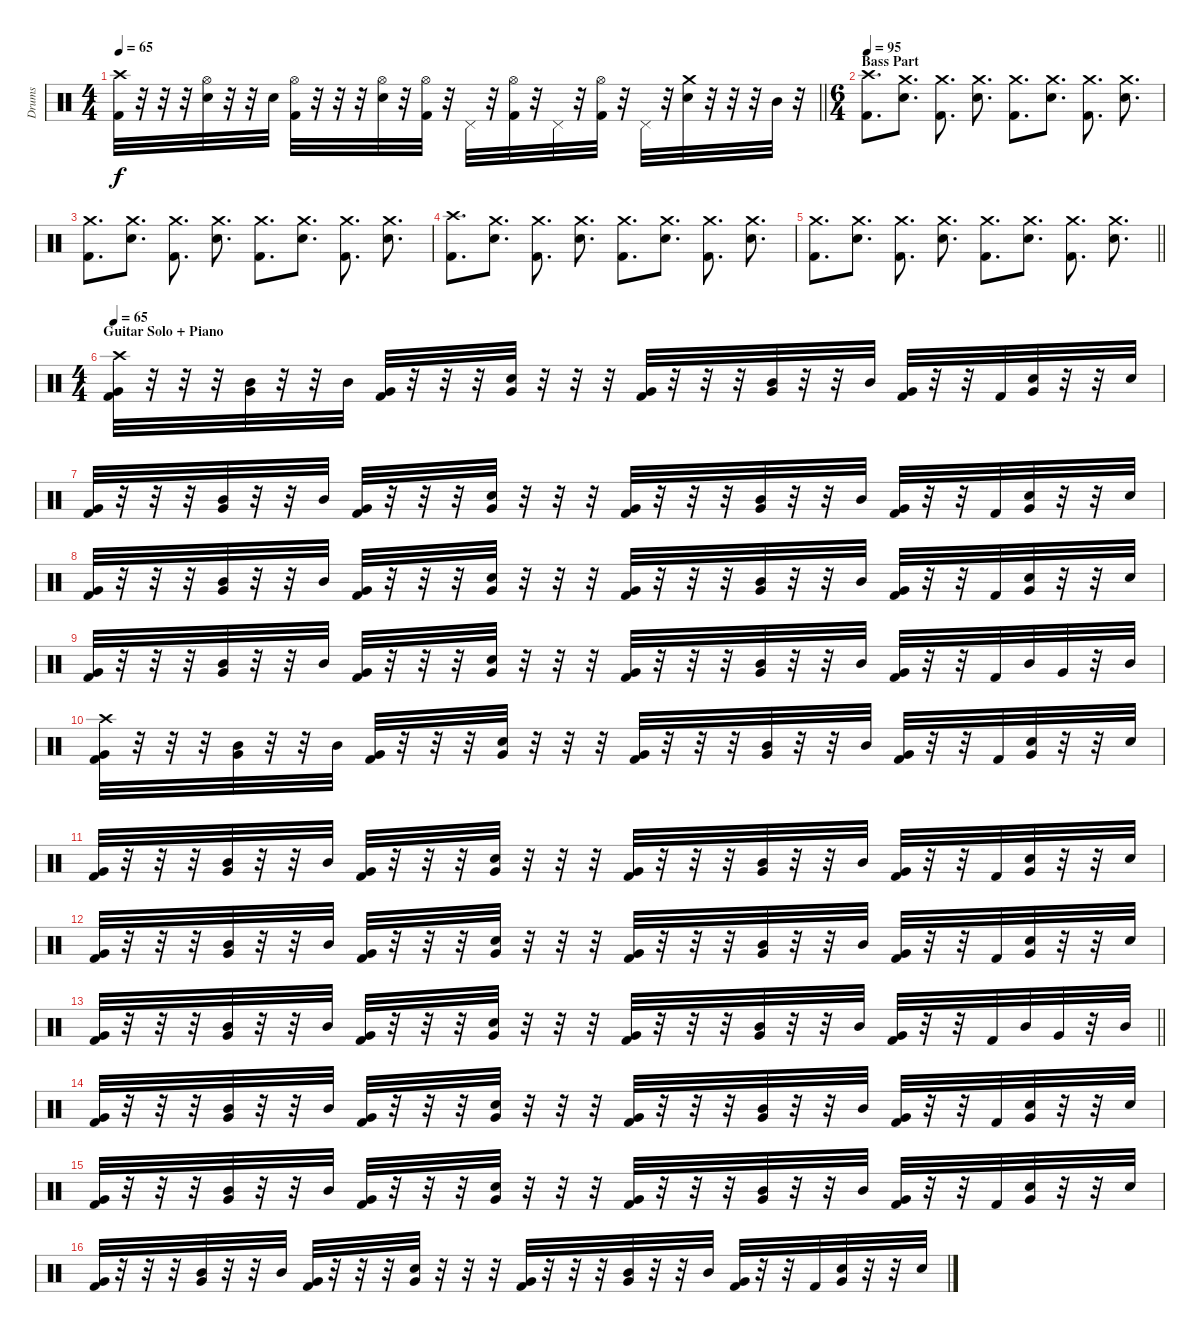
\track ("Drums" "Drums") {instrument percussion}
\staff {score}
\articulation defaults
\ts (4 4)
\tempo 65
\clef neutral
\barLineRight lightlight
\ks c
("Crash high (hit)" "Kick (hit) 2").32{dy f} r.32 r.32 r.32 ("Hi-Hat (open)" "Snare (hit) 2").32 r.32 r.32 "Snare (hit) 2".32 ("Hi-Hat (open)" "Kick (hit) 2").32 r.32 r.32 r.32 ("Hi-Hat (open)" "Snare (hit) 2").32 r.32 ("Hi-Hat (open)" "Kick (hit) 2").32 r.32 "Pedal Hi-Hat (hit)".32 r.32 ("Hi-Hat (open)" "Kick (hit) 2").32 r.32 "Pedal Hi-Hat (hit)".32 r.32 ("Hi-Hat (open)" "Kick (hit) 2").32 r.32 "Pedal Hi-Hat (hit)".32 r.32 ("Crash medium (hit)" "Snare (hit) 2").32 r.32 r.32 r.32 "Mid Tom (hit)".32 r.32 |
\ts (6 4)
\section ("" "Bass Part")
\tempo 95
("Crash high (hit)" "Kick (hit) 2").8{d} ("Crash medium (hit)" "Snare (hit) 2").8{d} ("Crash medium (hit)" "Kick (hit) 2").8{d} ("Crash medium (hit)" "Snare (hit) 2").8{d} ("Crash medium (hit)" "Kick (hit) 2").8{d} ("Crash medium (hit)" "Snare (hit) 2").8{d} ("Crash medium (hit)" "Kick (hit) 2").8{d} ("Crash medium (hit)" "Snare (hit) 2").8{d} |
("Crash medium (hit)" "Kick (hit) 2").8{d} ("Crash medium (hit)" "Snare (hit) 2").8{d} ("Crash medium (hit)" "Kick (hit) 2").8{d} ("Crash medium (hit)" "Snare (hit) 2").8{d} ("Crash medium (hit)" "Kick (hit) 2").8{d} ("Crash medium (hit)" "Snare (hit) 2").8{d} ("Crash medium (hit)" "Kick (hit) 2").8{d} ("Crash medium (hit)" "Snare (hit) 2").8{d} |
("Crash high (hit)" "Kick (hit) 2").8{d} ("Crash medium (hit)" "Snare (hit) 2").8{d} ("Crash medium (hit)" "Kick (hit) 2").8{d} ("Crash medium (hit)" "Snare (hit) 2").8{d} ("Crash medium (hit)" "Kick (hit) 2").8{d} ("Crash medium (hit)" "Snare (hit) 2").8{d} ("Crash medium (hit)" "Kick (hit) 2").8{d} ("Crash medium (hit)" "Snare (hit) 2").8{d} |
\barLineRight lightlight
("Crash medium (hit)" "Kick (hit) 2").8{d} ("Crash medium (hit)" "Snare (hit) 2").8{d} ("Crash medium (hit)" "Kick (hit) 2").8{d} ("Crash medium (hit)" "Snare (hit) 2").8{d} ("Crash medium (hit)" "Kick (hit) 2").8{d} ("Crash medium (hit)" "Snare (hit) 2").8{d} ("Crash medium (hit)" "Kick (hit) 2").8{d} ("Crash medium (hit)" "Snare (hit) 2").8{d} |
\ts (4 4)
\section ("" "Guitar Solo + Piano")
\tempo 65
("Crash high (hit)" "Very Low Tom (hit)" "Kick (hit) 2").32 r.32 r.32 r.32 ("Mid Tom (hit)" "Very Low Tom (hit)").32 r.32 r.32 "Mid Tom (hit)".32 ("Very Low Tom (hit)" "Kick (hit) 2").32 r.32 r.32 r.32 ("Snare (hit) 2" "Very Low Tom (hit)").32 r.32 r.32 r.32 ("Very Low Tom (hit)" "Kick (hit) 2").32 r.32 r.32 r.32 ("Mid Tom (hit)" "Very Low Tom (hit)").32 r.32 r.32 "Mid Tom (hit)".32 ("Very Low Tom (hit)" "Kick (hit) 2").32 r.32 r.32 "Kick (hit) 2".32 ("Snare (hit) 2" "Very Low Tom (hit)").32 r.32 r.32 "Snare (hit) 2".32 |
("Very Low Tom (hit)" "Kick (hit) 2").32 r.32 r.32 r.32 ("Mid Tom (hit)" "Very Low Tom (hit)").32 r.32 r.32 "Mid Tom (hit)".32 ("Very Low Tom (hit)" "Kick (hit) 2").32 r.32 r.32 r.32 ("Snare (hit) 2" "Very Low Tom (hit)").32 r.32 r.32 r.32 ("Very Low Tom (hit)" "Kick (hit) 2").32 r.32 r.32 r.32 ("Mid Tom (hit)" "Very Low Tom (hit)").32 r.32 r.32 "Mid Tom (hit)".32 ("Very Low Tom (hit)" "Kick (hit) 2").32 r.32 r.32 "Kick (hit) 2".32 ("Snare (hit) 2" "Very Low Tom (hit)").32 r.32 r.32 "Snare (hit) 2".32 |
("Very Low Tom (hit)" "Kick (hit) 2").32 r.32 r.32 r.32 ("Mid Tom (hit)" "Very Low Tom (hit)").32 r.32 r.32 "Mid Tom (hit)".32 ("Very Low Tom (hit)" "Kick (hit) 2").32 r.32 r.32 r.32 ("Snare (hit) 2" "Very Low Tom (hit)").32 r.32 r.32 r.32 ("Very Low Tom (hit)" "Kick (hit) 2").32 r.32 r.32 r.32 ("Mid Tom (hit)" "Very Low Tom (hit)").32 r.32 r.32 "Mid Tom (hit)".32 ("Very Low Tom (hit)" "Kick (hit) 2").32 r.32 r.32 "Kick (hit) 2".32 ("Snare (hit) 2" "Very Low Tom (hit)").32 r.32 r.32 "Snare (hit) 2".32 |
("Very Low Tom (hit)" "Kick (hit) 2").32 r.32 r.32 r.32 ("Mid Tom (hit)" "Very Low Tom (hit)").32 r.32 r.32 "Mid Tom (hit)".32 ("Very Low Tom (hit)" "Kick (hit) 2").32 r.32 r.32 r.32 ("Snare (hit) 2" "Very Low Tom (hit)").32 r.32 r.32 r.32 ("Very Low Tom (hit)" "Kick (hit) 2").32 r.32 r.32 r.32 ("Mid Tom (hit)" "Very Low Tom (hit)").32 r.32 r.32 "Mid Tom (hit)".32 ("Very Low Tom (hit)" "Kick (hit) 2").32 r.32 r.32 "Kick (hit) 2".32 "Mid Tom (hit)".32 "Very Low Tom (hit)".32 r.32 "Mid Tom (hit)".32 |
("Crash high (hit)" "Very Low Tom (hit)" "Kick (hit) 2").32 r.32 r.32 r.32 ("Mid Tom (hit)" "Very Low Tom (hit)").32 r.32 r.32 "Mid Tom (hit)".32 ("Very Low Tom (hit)" "Kick (hit) 2").32 r.32 r.32 r.32 ("Snare (hit) 2" "Very Low Tom (hit)").32 r.32 r.32 r.32 ("Very Low Tom (hit)" "Kick (hit) 2").32 r.32 r.32 r.32 ("Mid Tom (hit)" "Very Low Tom (hit)").32 r.32 r.32 "Mid Tom (hit)".32 ("Very Low Tom (hit)" "Kick (hit) 2").32 r.32 r.32 "Kick (hit) 2".32 ("Snare (hit) 2" "Very Low Tom (hit)").32 r.32 r.32 "Snare (hit) 2".32 |
("Very Low Tom (hit)" "Kick (hit) 2").32 r.32 r.32 r.32 ("Mid Tom (hit)" "Very Low Tom (hit)").32 r.32 r.32 "Mid Tom (hit)".32 ("Very Low Tom (hit)" "Kick (hit) 2").32 r.32 r.32 r.32 ("Snare (hit) 2" "Very Low Tom (hit)").32 r.32 r.32 r.32 ("Very Low Tom (hit)" "Kick (hit) 2").32 r.32 r.32 r.32 ("Mid Tom (hit)" "Very Low Tom (hit)").32 r.32 r.32 "Mid Tom (hit)".32 ("Very Low Tom (hit)" "Kick (hit) 2").32 r.32 r.32 "Kick (hit) 2".32 ("Snare (hit) 2" "Very Low Tom (hit)").32 r.32 r.32 "Snare (hit) 2".32 |
("Very Low Tom (hit)" "Kick (hit) 2").32 r.32 r.32 r.32 ("Mid Tom (hit)" "Very Low Tom (hit)").32 r.32 r.32 "Mid Tom (hit)".32 ("Very Low Tom (hit)" "Kick (hit) 2").32 r.32 r.32 r.32 ("Snare (hit) 2" "Very Low Tom (hit)").32 r.32 r.32 r.32 ("Very Low Tom (hit)" "Kick (hit) 2").32 r.32 r.32 r.32 ("Mid Tom (hit)" "Very Low Tom (hit)").32 r.32 r.32 "Mid Tom (hit)".32 ("Very Low Tom (hit)" "Kick (hit) 2").32 r.32 r.32 "Kick (hit) 2".32 ("Snare (hit) 2" "Very Low Tom (hit)").32 r.32 r.32 "Snare (hit) 2".32 |
\barLineRight lightlight
("Very Low Tom (hit)" "Kick (hit) 2").32 r.32 r.32 r.32 ("Mid Tom (hit)" "Very Low Tom (hit)").32 r.32 r.32 "Mid Tom (hit)".32 ("Very Low Tom (hit)" "Kick (hit) 2").32 r.32 r.32 r.32 ("Snare (hit) 2" "Very Low Tom (hit)").32 r.32 r.32 r.32 ("Very Low Tom (hit)" "Kick (hit) 2").32 r.32 r.32 r.32 ("Mid Tom (hit)" "Very Low Tom (hit)").32 r.32 r.32 "Mid Tom (hit)".32 ("Very Low Tom (hit)" "Kick (hit) 2").32 r.32 r.32 "Kick (hit) 2".32 "Mid Tom (hit)".32 "Very Low Tom (hit)".32 r.32 "Mid Tom (hit)".32 |
("Very Low Tom (hit)" "Kick (hit) 2").32 r.32 r.32 r.32 ("Mid Tom (hit)" "Very Low Tom (hit)").32 r.32 r.32 "Mid Tom (hit)".32 ("Very Low Tom (hit)" "Kick (hit) 2").32 r.32 r.32 r.32 ("Snare (hit) 2" "Very Low Tom (hit)").32 r.32 r.32 r.32 ("Very Low Tom (hit)" "Kick (hit) 2").32 r.32 r.32 r.32 ("Mid Tom (hit)" "Very Low Tom (hit)").32 r.32 r.32 "Mid Tom (hit)".32 ("Very Low Tom (hit)" "Kick (hit) 2").32 r.32 r.32 "Kick (hit) 2".32 ("Snare (hit) 2" "Very Low Tom (hit)").32 r.32 r.32 "Snare (hit) 2".32 |
("Very Low Tom (hit)" "Kick (hit) 2").32 r.32 r.32 r.32 ("Mid Tom (hit)" "Very Low Tom (hit)").32 r.32 r.32 "Mid Tom (hit)".32 ("Very Low Tom (hit)" "Kick (hit) 2").32 r.32 r.32 r.32 ("Snare (hit) 2" "Very Low Tom (hit)").32 r.32 r.32 r.32 ("Very Low Tom (hit)" "Kick (hit) 2").32 r.32 r.32 r.32 ("Mid Tom (hit)" "Very Low Tom (hit)").32 r.32 r.32 "Mid Tom (hit)".32 ("Very Low Tom (hit)" "Kick (hit) 2").32 r.32 r.32 "Kick (hit) 2".32 ("Snare (hit) 2" "Very Low Tom (hit)").32 r.32 r.32 "Snare (hit) 2".32 |
("Very Low Tom (hit)" "Kick (hit) 2").32 r.32 r.32 r.32 ("Mid Tom (hit)" "Very Low Tom (hit)").32 r.32 r.32 "Mid Tom (hit)".32 ("Very Low Tom (hit)" "Kick (hit) 2").32 r.32 r.32 r.32 ("Snare (hit) 2" "Very Low Tom (hit)").32 r.32 r.32 r.32 ("Very Low Tom (hit)" "Kick (hit) 2").32 r.32 r.32 r.32 ("Mid Tom (hit)" "Very Low Tom (hit)").32 r.32 r.32 "Mid Tom (hit)".32 ("Very Low Tom (hit)" "Kick (hit) 2").32 r.32 r.32 "Kick (hit) 2".32 ("Snare (hit) 2" "Very Low Tom (hit)").32 r.32 r.32 "Snare (hit) 2".32
